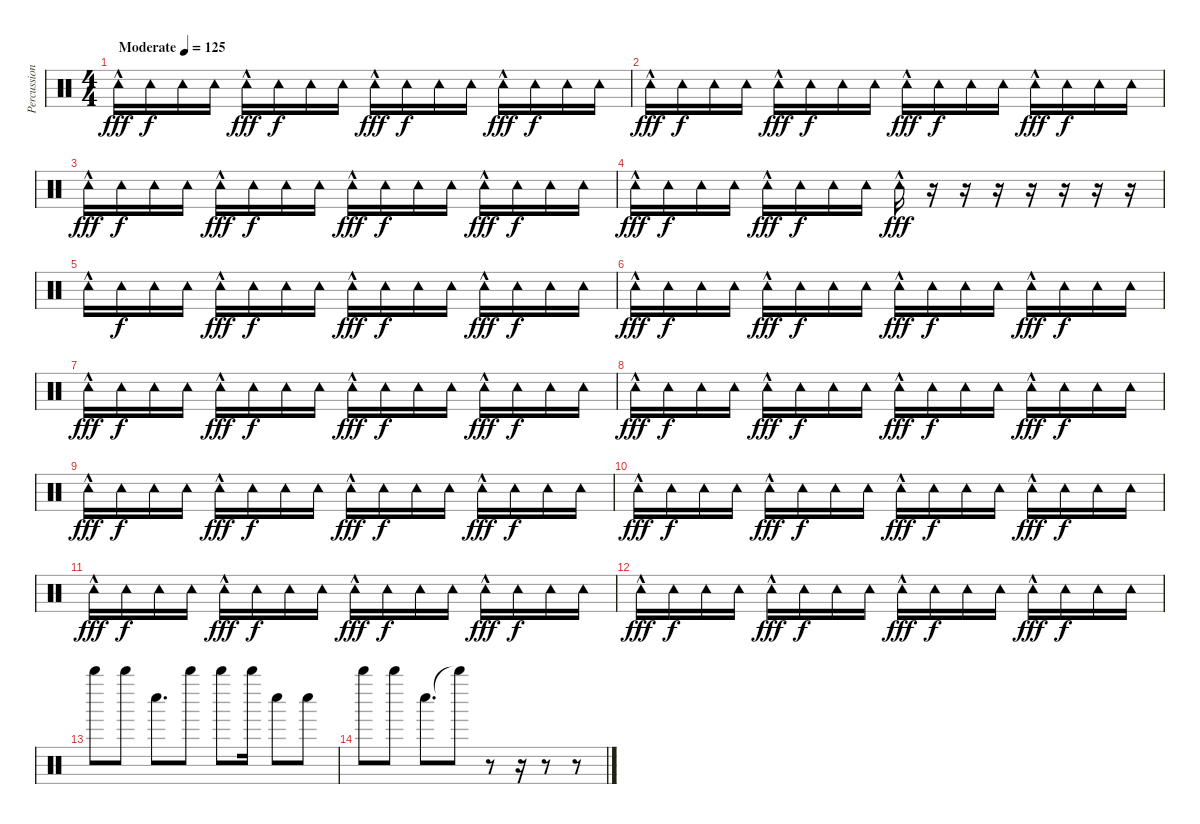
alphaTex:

\track ("Percussion" "Percussion") {instrument percussion}
\staff {score}
\articulation defaults
\ts (4 4)
\tempo (125 "Moderate")
\clef neutral
\ks c "Tambourine (hit)"{hac}.16{dy fff} "Tambourine (hit)".16{dy f} "Tambourine (hit)".16 "Tambourine (hit)".16 "Tambourine (hit)"{hac}.16{dy fff} "Tambourine (hit)".16{dy f} "Tambourine (hit)".16 "Tambourine (hit)".16 "Tambourine (hit)"{hac}.16{dy fff} "Tambourine (hit)".16{dy f} "Tambourine (hit)".16 "Tambourine (hit)".16 "Tambourine (hit)"{hac}.16{dy fff} "Tambourine (hit)".16{dy f} "Tambourine (hit)".16 "Tambourine (hit)".16
|
"Tambourine (hit)"{hac}.16{dy fff} "Tambourine (hit)".16{dy f} "Tambourine (hit)".16 "Tambourine (hit)".16 "Tambourine (hit)"{hac}.16{dy fff} "Tambourine (hit)".16{dy f} "Tambourine (hit)".16 "Tambourine (hit)".16 "Tambourine (hit)"{hac}.16{dy fff} "Tambourine (hit)".16{dy f} "Tambourine (hit)".16 "Tambourine (hit)".16 "Tambourine (hit)"{hac}.16{dy fff} "Tambourine (hit)".16{dy f} "Tambourine (hit)".16 "Tambourine (hit)".16 |
"Tambourine (hit)"{hac}.16{dy fff} "Tambourine (hit)".16{dy f} "Tambourine (hit)".16 "Tambourine (hit)".16 "Tambourine (hit)"{hac}.16{dy fff} "Tambourine (hit)".16{dy f} "Tambourine (hit)".16 "Tambourine (hit)".16 "Tambourine (hit)"{hac}.16{dy fff} "Tambourine (hit)".16{dy f} "Tambourine (hit)".16 "Tambourine (hit)".16 "Tambourine (hit)"{hac}.16{dy fff} "Tambourine (hit)".16{dy f} "Tambourine (hit)".16 "Tambourine (hit)".16 |
"Tambourine (hit)"{hac}.16{dy fff} "Tambourine (hit)".16{dy f} "Tambourine (hit)".16 "Tambourine (hit)".16 "Tambourine (hit)"{hac}.16{dy fff} "Tambourine (hit)".16{dy f} "Tambourine (hit)".16 "Tambourine (hit)".16 "Tambourine (hit)"{hac}.16{dy fff} r.16 r.16 r.16 r.16 r.16 r.16 r.16 |
"Tambourine (hit)"{hac}.16 "Tambourine (hit)".16{dy f} "Tambourine (hit)".16 "Tambourine (hit)".16 "Tambourine (hit)"{hac}.16{dy fff} "Tambourine (hit)".16{dy f} "Tambourine (hit)".16 "Tambourine (hit)".16 "Tambourine (hit)"{hac}.16{dy fff} "Tambourine (hit)".16{dy f} "Tambourine (hit)".16 "Tambourine (hit)".16 "Tambourine (hit)"{hac}.16{dy fff} "Tambourine (hit)".16{dy f} "Tambourine (hit)".16 "Tambourine (hit)".16 |
"Tambourine (hit)"{hac}.16{dy fff} "Tambourine (hit)".16{dy f} "Tambourine (hit)".16 "Tambourine (hit)".16 "Tambourine (hit)"{hac}.16{dy fff} "Tambourine (hit)".16{dy f} "Tambourine (hit)".16 "Tambourine (hit)".16 "Tambourine (hit)"{hac}.16{dy fff} "Tambourine (hit)".16{dy f} "Tambourine (hit)".16 "Tambourine (hit)".16 "Tambourine (hit)"{hac}.16{dy fff} "Tambourine (hit)".16{dy f} "Tambourine (hit)".16 "Tambourine (hit)".16 |
"Tambourine (hit)"{hac}.16{dy fff} "Tambourine (hit)".16{dy f} "Tambourine (hit)".16 "Tambourine (hit)".16 "Tambourine (hit)"{hac}.16{dy fff} "Tambourine (hit)".16{dy f} "Tambourine (hit)".16 "Tambourine (hit)".16 "Tambourine (hit)"{hac}.16{dy fff} "Tambourine (hit)".16{dy f} "Tambourine (hit)".16 "Tambourine (hit)".16 "Tambourine (hit)"{hac}.16{dy fff} "Tambourine (hit)".16{dy f} "Tambourine (hit)".16 "Tambourine (hit)".16 |
"Tambourine (hit)"{hac}.16{dy fff} "Tambourine (hit)".16{dy f} "Tambourine (hit)".16 "Tambourine (hit)".16 "Tambourine (hit)"{hac}.16{dy fff} "Tambourine (hit)".16{dy f} "Tambourine (hit)".16 "Tambourine (hit)".16 "Tambourine (hit)"{hac}.16{dy fff} "Tambourine (hit)".16{dy f} "Tambourine (hit)".16 "Tambourine (hit)".16 "Tambourine (hit)"{hac}.16{dy fff} "Tambourine (hit)".16{dy f} "Tambourine (hit)".16 "Tambourine (hit)".16 |
"Tambourine (hit)"{hac}.16{dy fff} "Tambourine (hit)".16{dy f} "Tambourine (hit)".16 "Tambourine (hit)".16 "Tambourine (hit)"{hac}.16{dy fff} "Tambourine (hit)".16{dy f} "Tambourine (hit)".16 "Tambourine (hit)".16 "Tambourine (hit)"{hac}.16{dy fff} "Tambourine (hit)".16{dy f} "Tambourine (hit)".16 "Tambourine (hit)".16 "Tambourine (hit)"{hac}.16{dy fff} "Tambourine (hit)".16{dy f} "Tambourine (hit)".16 "Tambourine (hit)".16 |
"Tambourine (hit)"{hac}.16{dy fff} "Tambourine (hit)".16{dy f} "Tambourine (hit)".16 "Tambourine (hit)".16 "Tambourine (hit)"{hac}.16{dy fff} "Tambourine (hit)".16{dy f} "Tambourine (hit)".16 "Tambourine (hit)".16 "Tambourine (hit)"{hac}.16{dy fff} "Tambourine (hit)".16{dy f} "Tambourine (hit)".16 "Tambourine (hit)".16 "Tambourine (hit)"{hac}.16{dy fff} "Tambourine (hit)".16{dy f} "Tambourine (hit)".16 "Tambourine (hit)".16 |
"Tambourine (hit)"{hac}.16{dy fff} "Tambourine (hit)".16{dy f} "Tambourine (hit)".16 "Tambourine (hit)".16 "Tambourine (hit)"{hac}.16{dy fff} "Tambourine (hit)".16{dy f} "Tambourine (hit)".16 "Tambourine (hit)".16 "Tambourine (hit)"{hac}.16{dy fff} "Tambourine (hit)".16{dy f} "Tambourine (hit)".16 "Tambourine (hit)".16 "Tambourine (hit)"{hac}.16{dy fff} "Tambourine (hit)".16{dy f} "Tambourine (hit)".16 "Tambourine (hit)".16 |
"Tambourine (hit)"{hac}.16{dy fff} "Tambourine (hit)".16{dy f} "Tambourine (hit)".16 "Tambourine (hit)".16 "Tambourine (hit)"{hac}.16{dy fff} "Tambourine (hit)".16{dy f} "Tambourine (hit)".16 "Tambourine (hit)".16 "Tambourine (hit)"{hac}.16{dy fff} "Tambourine (hit)".16{dy f} "Tambourine (hit)".16 "Tambourine (hit)".16 "Tambourine (hit)"{hac}.16{dy fff} "Tambourine (hit)".16{dy f} "Tambourine (hit)".16 "Tambourine (hit)".16 |
"Whistle high (hit)".8 "Whistle high (hit)".8 "Whistle low (hit)".8{d} "Whistle high (hit)".8 "Whistle high (hit)".8 "Whistle high (hit)".16 "Whistle low (hit)".8 "Whistle low (hit)".8 |
"Whistle high (hit)".8 "Whistle high (hit)".8 "Whistle low (hit)".8{d} "Whistle high (hit)"{t}.8 r.8 r.16 r.8 r.8
